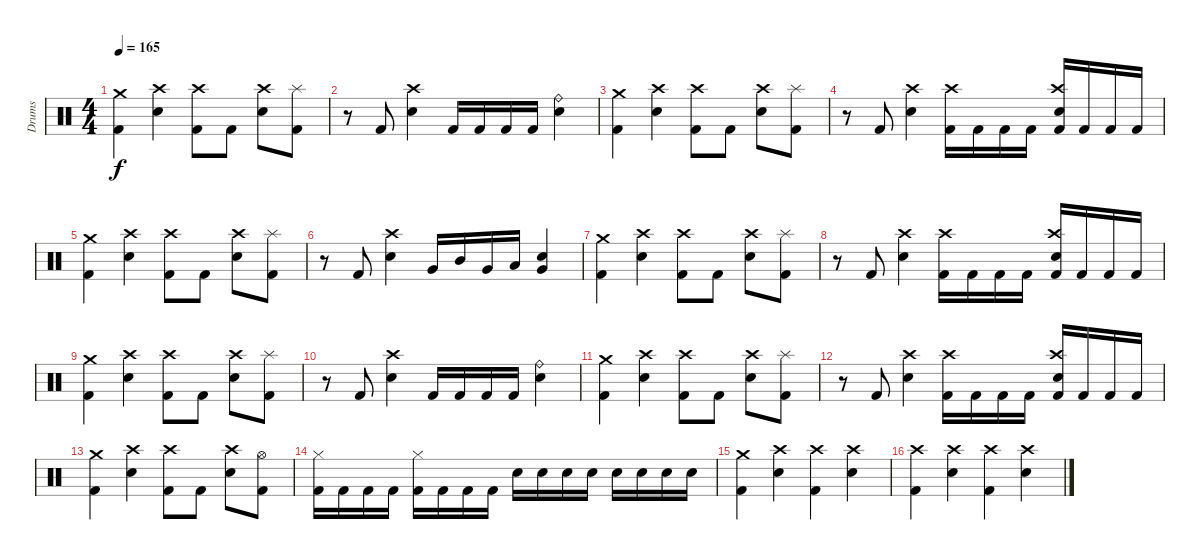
\track ("Drums" "Drums") {instrument percussion}
\staff {score}
\articulation defaults
\ts (4 4)
\tempo 165
\clef neutral
\ks c
("Crash medium (hit)" "Kick (hit) 2").4{dy f} ("Crash high (hit)" "Electric Snare (hit)").4 ("Crash high (hit)" "Kick (hit) 2").8 "Kick (hit) 2".8 ("Crash high (hit)" "Electric Snare (hit)").8 ("Splash (hit)" "Kick (hit) 2").8 |
r.8 "Kick (hit) 2".8 ("Crash high (hit)" "Electric Snare (hit)").4 "Kick (hit) 2".16 "Kick (hit) 2".16 "Kick (hit) 2".16 "Kick (hit) 2".16 ("Ride (bell)" "Electric Snare (hit)").4 |
("Crash medium (hit)" "Kick (hit) 2").4 ("Crash high (hit)" "Electric Snare (hit)").4 ("Crash high (hit)" "Kick (hit) 2").8 "Kick (hit) 2".8 ("Crash high (hit)" "Electric Snare (hit)").8 ("Splash (hit)" "Kick (hit) 2").8 |
r.8 "Kick (hit) 2".8 ("Crash high (hit)" "Electric Snare (hit)").4 ("Crash high (hit)" "Kick (hit) 2").16 "Kick (hit) 2".16 "Kick (hit) 2".16 "Kick (hit) 2".16 ("Crash high (hit)" "Electric Snare (hit)" "Kick (hit) 2").16 "Kick (hit) 2".16 "Kick (hit) 2".16 "Kick (hit) 2".16 |
("Crash medium (hit)" "Kick (hit) 2").4 ("Crash high (hit)" "Electric Snare (hit)").4 ("Crash high (hit)" "Kick (hit) 2").8 "Kick (hit) 2".8 ("Crash high (hit)" "Electric Snare (hit)").8 ("Splash (hit)" "Kick (hit) 2").8 |
r.8 "Kick (hit) 2".8 ("Crash high (hit)" "Electric Snare (hit)").4 "Very Low Tom (hit)".16 "Mid Tom (hit)".16 "Very Low Tom (hit)".16 "Low Floor Tom (hit)".16 ("Very Low Tom (hit)" "Electric Snare (hit)").4 |
("Crash medium (hit)" "Kick (hit) 2").4 ("Crash high (hit)" "Electric Snare (hit)").4 ("Crash high (hit)" "Kick (hit) 2").8 "Kick (hit) 2".8 ("Crash high (hit)" "Electric Snare (hit)").8 ("Splash (hit)" "Kick (hit) 2").8 |
r.8 "Kick (hit) 2".8 ("Crash high (hit)" "Electric Snare (hit)").4 ("Crash high (hit)" "Kick (hit) 2").16 "Kick (hit) 2".16 "Kick (hit) 2".16 "Kick (hit) 2".16 ("Crash high (hit)" "Electric Snare (hit)" "Kick (hit) 2").16 "Kick (hit) 2".16 "Kick (hit) 2".16 "Kick (hit) 2".16 |
("Crash medium (hit)" "Kick (hit) 2").4 ("Crash high (hit)" "Electric Snare (hit)").4 ("Crash high (hit)" "Kick (hit) 2").8 "Kick (hit) 2".8 ("Crash high (hit)" "Electric Snare (hit)").8 ("Splash (hit)" "Kick (hit) 2").8 |
r.8 "Kick (hit) 2".8 ("Crash high (hit)" "Electric Snare (hit)").4 "Kick (hit) 2".16 "Kick (hit) 2".16 "Kick (hit) 2".16 "Kick (hit) 2".16 ("Ride (bell)" "Electric Snare (hit)").4 |
("Crash medium (hit)" "Kick (hit) 2").4 ("Crash high (hit)" "Electric Snare (hit)").4 ("Crash high (hit)" "Kick (hit) 2").8 "Kick (hit) 2".8 ("Crash high (hit)" "Electric Snare (hit)").8 ("Splash (hit)" "Kick (hit) 2").8 |
r.8 "Kick (hit) 2".8 ("Crash high (hit)" "Electric Snare (hit)").4 ("Crash high (hit)" "Kick (hit) 2").16 "Kick (hit) 2".16 "Kick (hit) 2".16 "Kick (hit) 2".16 ("Crash high (hit)" "Electric Snare (hit)" "Kick (hit) 2").16 "Kick (hit) 2".16 "Kick (hit) 2".16 "Kick (hit) 2".16 |
("Crash medium (hit)" "Kick (hit) 2").4 ("Crash high (hit)" "Electric Snare (hit)").4 ("Crash high (hit)" "Kick (hit) 2").8 "Kick (hit) 2".8 ("Crash high (hit)" "Electric Snare (hit)").8 ("Hi-Hat (open)" "Kick (hit) 2").8 |
("Hi-Hat (closed)" "Kick (hit) 2").16 "Kick (hit) 2".16 "Kick (hit) 2".16 "Kick (hit) 2".16 ("Hi-Hat (closed)" "Kick (hit) 2").16 "Kick (hit) 2".16 "Kick (hit) 2".16 "Kick (hit) 2".16 "Electric Snare (hit)".16 "Electric Snare (hit)".16 "Electric Snare (hit)".16 "Electric Snare (hit)".16 "Electric Snare (hit)".16 "Electric Snare (hit)".16 "Electric Snare (hit)".16 "Electric Snare (hit)".16 |
("Crash medium (hit)" "Kick (hit) 2").4 ("Crash high (hit)" "Electric Snare (hit)").4 ("Crash high (hit)" "Kick (hit) 2").4 ("Crash high (hit)" "Electric Snare (hit)").4 |
("Crash high (hit)" "Kick (hit) 2").4 ("Crash high (hit)" "Electric Snare (hit)").4 ("Crash high (hit)" "Kick (hit) 2").4 ("Crash high (hit)" "Electric Snare (hit)").4
